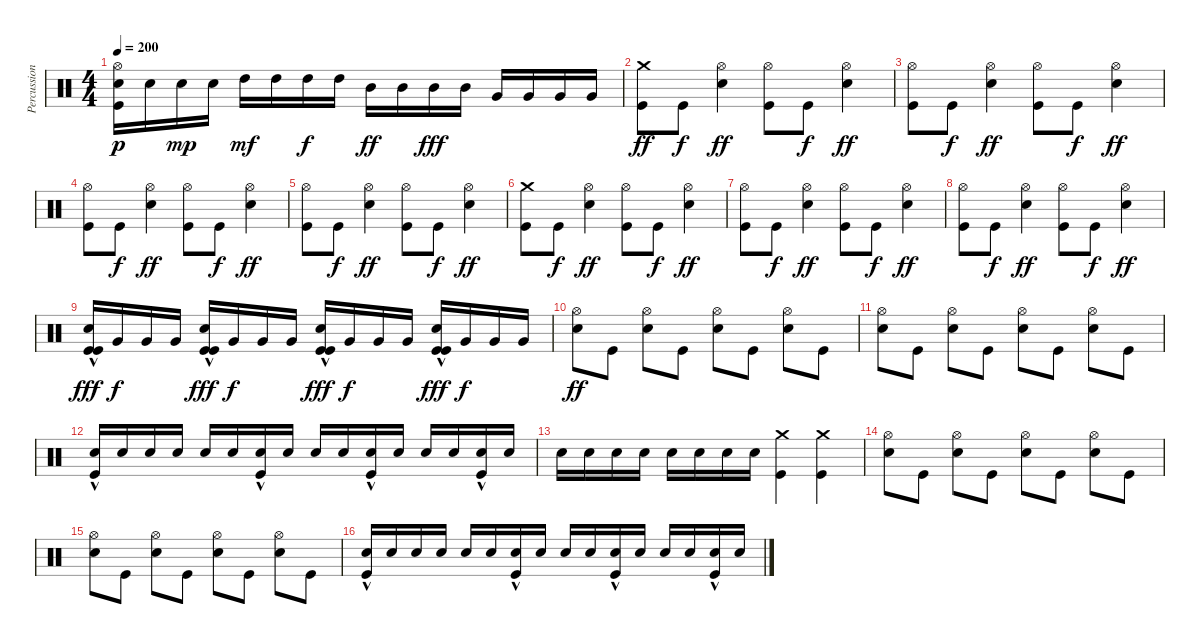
\track ("Percussion" "Percussion") {instrument percussion}
\staff {score}
\articulation defaults
\ts (4 4)
\tempo 200
\clef neutral
\ks c
("Hi-Hat (open)" "Kick (hit)" "Snare (hit) 2").16{dy p} "Snare (hit) 2".16 "Snare (hit) 2".16{dy mp} "Snare (hit) 2".16 "High Tom (hit)".16{dy mf} "High Tom (hit)".16 "High Tom (hit)".16{dy f} "High Tom (hit)".16 "Mid Tom (hit)".16{dy ff} "Mid Tom (hit)".16 "Mid Tom (hit)".16{dy fff} "Mid Tom (hit)".16 "Very Low Tom (hit)".16 "Very Low Tom (hit)".16 "Very Low Tom (hit)".16 "Very Low Tom (hit)".16 |
("Crash medium (hit)" "Kick (hit)").8{dy ff} "Kick (hit)".8{dy f} ("Hi-Hat (open)" "Snare (hit) 2").4{dy ff} ("Hi-Hat (open)" "Kick (hit)").8 "Kick (hit)".8{dy f} ("Hi-Hat (open)" "Snare (hit) 2").4{dy ff} |
("Hi-Hat (open)" "Kick (hit)").8 "Kick (hit)".8{dy f} ("Hi-Hat (open)" "Snare (hit) 2").4{dy ff} ("Hi-Hat (open)" "Kick (hit)").8 "Kick (hit)".8{dy f} ("Hi-Hat (open)" "Snare (hit) 2").4{dy ff} |
("Hi-Hat (open)" "Kick (hit)").8 "Kick (hit)".8{dy f} ("Hi-Hat (open)" "Snare (hit) 2").4{dy ff} ("Hi-Hat (open)" "Kick (hit)").8 "Kick (hit)".8{dy f} ("Hi-Hat (open)" "Snare (hit) 2").4{dy ff} |
("Hi-Hat (open)" "Kick (hit)").8 "Kick (hit)".8{dy f} ("Hi-Hat (open)" "Snare (hit) 2").4{dy ff} ("Hi-Hat (open)" "Kick (hit)").8 "Kick (hit)".8{dy f} ("Hi-Hat (open)" "Snare (hit) 2").4{dy ff} |
("Crash medium (hit)" "Kick (hit)").8 "Kick (hit)".8{dy f} ("Hi-Hat (open)" "Snare (hit) 2").4{dy ff} ("Hi-Hat (open)" "Kick (hit)").8 "Kick (hit)".8{dy f} ("Hi-Hat (open)" "Snare (hit) 2").4{dy ff} |
("Hi-Hat (open)" "Kick (hit)").8 "Kick (hit)".8{dy f} ("Hi-Hat (open)" "Snare (hit) 2").4{dy ff} ("Hi-Hat (open)" "Kick (hit)").8 "Kick (hit)".8{dy f} ("Hi-Hat (open)" "Snare (hit) 2").4{dy ff} |
("Hi-Hat (open)" "Kick (hit)").8 "Kick (hit)".8{dy f} ("Hi-Hat (open)" "Snare (hit) 2").4{dy ff} ("Hi-Hat (open)" "Kick (hit)").8 "Kick (hit)".8{dy f} ("Hi-Hat (open)" "Snare (hit) 2").4{dy ff} |
("Snare (hit) 2"{hac} "Kick (hit)" "Kick (hit)").16{dy fff} "Very Low Tom (hit)".16{dy f} "Very Low Tom (hit)".16 "Very Low Tom (hit)".16 ("Snare (hit) 2"{hac} "Kick (hit)" "Kick (hit)").16{dy fff} "Very Low Tom (hit)".16{dy f} "Very Low Tom (hit)".16 "Very Low Tom (hit)".16 ("Snare (hit) 2"{hac} "Kick (hit)" "Kick (hit)").16{dy fff} "Very Low Tom (hit)".16{dy f} "Very Low Tom (hit)".16 "Very Low Tom (hit)".16 ("Snare (hit) 2"{hac} "Kick (hit)" "Kick (hit)").16{dy fff} "Very Low Tom (hit)".16{dy f} "Very Low Tom (hit)".16 "Very Low Tom (hit)".16 |
("Hi-Hat (open)" "Snare (hit) 2").8{dy ff} "Kick (hit)".8 ("Hi-Hat (open)" "Snare (hit) 2").8 "Kick (hit)".8 ("Hi-Hat (open)" "Snare (hit) 2").8 "Kick (hit)".8 ("Hi-Hat (open)" "Snare (hit) 2").8 "Kick (hit)".8 |
("Hi-Hat (open)" "Snare (hit) 2").8 "Kick (hit)".8 ("Hi-Hat (open)" "Snare (hit) 2").8 "Kick (hit)".8 ("Hi-Hat (open)" "Snare (hit) 2").8 "Kick (hit)".8 ("Hi-Hat (open)" "Snare (hit) 2").8 "Kick (hit)".8 |
("Snare (hit) 2"{hac} "Kick (hit)").16 "Snare (hit) 2".16 "Snare (hit) 2".16 "Snare (hit) 2".16 "Snare (hit) 2".16 "Snare (hit) 2".16 ("Snare (hit) 2"{hac} "Kick (hit)").16 "Snare (hit) 2".16 "Snare (hit) 2".16 "Snare (hit) 2".16 ("Snare (hit) 2"{hac} "Kick (hit)").16 "Snare (hit) 2".16 "Snare (hit) 2".16 "Snare (hit) 2".16 ("Snare (hit) 2"{hac} "Kick (hit)").16 "Snare (hit) 2".16 |
"Snare (hit) 2".16 "Snare (hit) 2".16 "Snare (hit) 2".16 "Snare (hit) 2".16 "Snare (hit) 2".16 "Snare (hit) 2".16 "Snare (hit) 2".16 "Snare (hit) 2".16 ("Crash medium (hit)" "Kick (hit)").4 ("Crash medium (hit)" "Kick (hit)").4 |
("Hi-Hat (open)" "Snare (hit) 2").8 "Kick (hit)".8 ("Hi-Hat (open)" "Snare (hit) 2").8 "Kick (hit)".8 ("Hi-Hat (open)" "Snare (hit) 2").8 "Kick (hit)".8 ("Hi-Hat (open)" "Snare (hit) 2").8 "Kick (hit)".8 |
("Hi-Hat (open)" "Snare (hit) 2").8 "Kick (hit)".8 ("Hi-Hat (open)" "Snare (hit) 2").8 "Kick (hit)".8 ("Hi-Hat (open)" "Snare (hit) 2").8 "Kick (hit)".8 ("Hi-Hat (open)" "Snare (hit) 2").8 "Kick (hit)".8 |
("Snare (hit) 2"{hac} "Kick (hit)").16 "Snare (hit) 2".16 "Snare (hit) 2".16 "Snare (hit) 2".16 "Snare (hit) 2".16 "Snare (hit) 2".16 ("Snare (hit) 2"{hac} "Kick (hit)").16 "Snare (hit) 2".16 "Snare (hit) 2".16 "Snare (hit) 2".16 ("Snare (hit) 2"{hac} "Kick (hit)").16 "Snare (hit) 2".16 "Snare (hit) 2".16 "Snare (hit) 2".16 ("Snare (hit) 2"{hac} "Kick (hit)").16 "Snare (hit) 2".16
